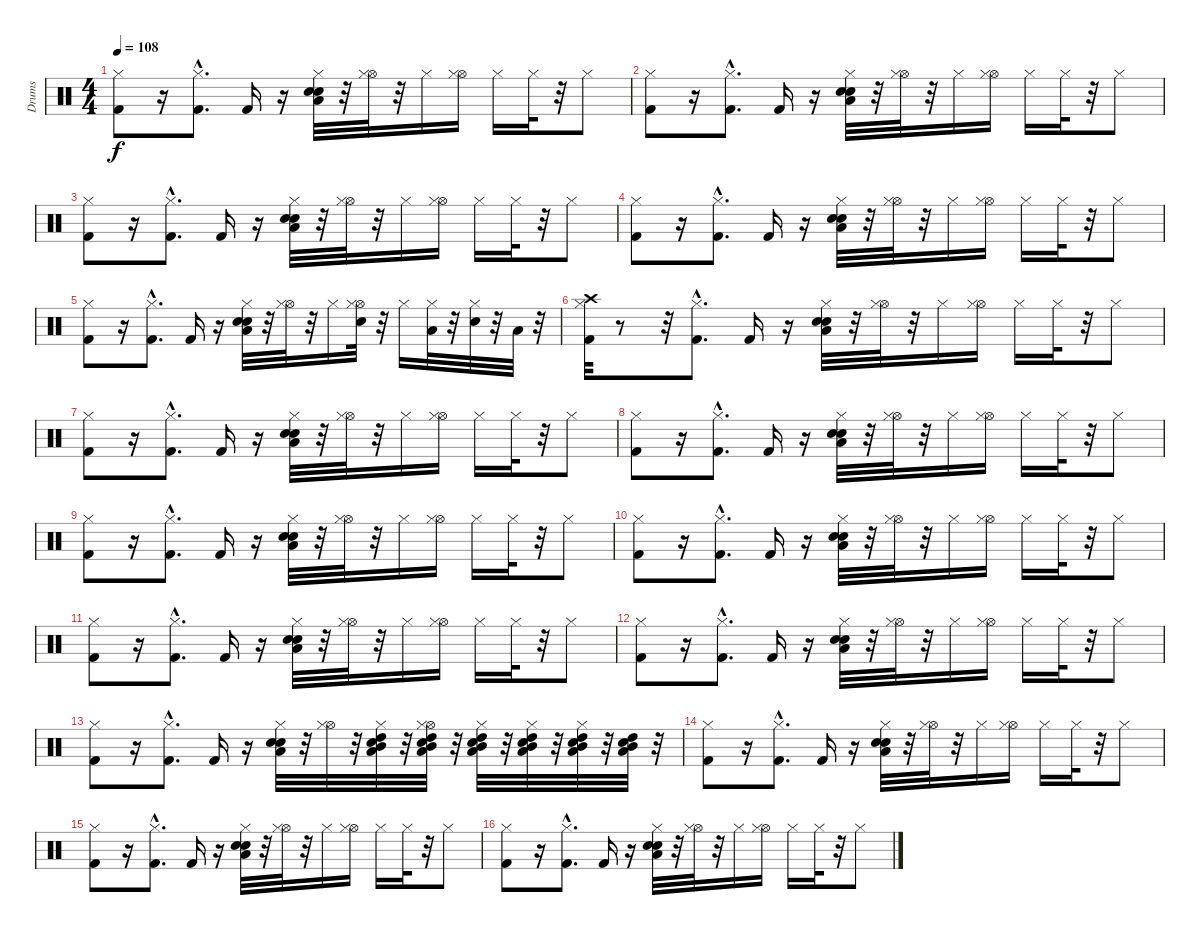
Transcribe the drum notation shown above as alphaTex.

\track ("Drums" "Drums") {instrument percussion}
\staff {score}
\articulation defaults
\ts (4 4)
\tempo 108
\clef neutral
\ks c
("Hi-Hat (closed)" "Kick (hit) 2").8{dy f} r.16 ("Kick (hit) 2"{hac} "Hi-Hat (closed)"{hac}).8{d} "Kick (hit) 2".16 r.16 ("Low Floor Tom (hit)" "Electric Snare (hit)" "Snare (hit) 2" "Hi-Hat (closed)").32 r.32 ("Hi-Hat (open)" "Hi-Hat (closed)").32 r.32 "Hi-Hat (closed)".16 ("Hi-Hat (open)" "Hi-Hat (closed)").16 "Hi-Hat (closed)".16 "Hi-Hat (closed)".32 r.32 "Hi-Hat (closed)".8 |
("Hi-Hat (closed)" "Kick (hit) 2").8 r.16 ("Kick (hit) 2"{hac} "Hi-Hat (closed)"{hac}).8{d} "Kick (hit) 2".16 r.16 ("Low Floor Tom (hit)" "Electric Snare (hit)" "Snare (hit) 2" "Hi-Hat (closed)").32 r.32 ("Hi-Hat (open)" "Hi-Hat (closed)").32 r.32 "Hi-Hat (closed)".16 ("Hi-Hat (open)" "Hi-Hat (closed)").16 "Hi-Hat (closed)".16 "Hi-Hat (closed)".32 r.32 "Hi-Hat (closed)".8 |
("Hi-Hat (closed)" "Kick (hit) 2").8 r.16 ("Kick (hit) 2"{hac} "Hi-Hat (closed)"{hac}).8{d} "Kick (hit) 2".16 r.16 ("Low Floor Tom (hit)" "Electric Snare (hit)" "Snare (hit) 2" "Hi-Hat (closed)").32 r.32 ("Hi-Hat (open)" "Hi-Hat (closed)").32 r.32 "Hi-Hat (closed)".16 ("Hi-Hat (open)" "Hi-Hat (closed)").16 "Hi-Hat (closed)".16 "Hi-Hat (closed)".32 r.32 "Hi-Hat (closed)".8 |
("Hi-Hat (closed)" "Kick (hit) 2").8 r.16 ("Kick (hit) 2"{hac} "Hi-Hat (closed)"{hac}).8{d} "Kick (hit) 2".16 r.16 ("Low Floor Tom (hit)" "Electric Snare (hit)" "Snare (hit) 2" "Hi-Hat (closed)").32 r.32 ("Hi-Hat (open)" "Hi-Hat (closed)").32 r.32 "Hi-Hat (closed)".16 ("Hi-Hat (open)" "Hi-Hat (closed)").16 "Hi-Hat (closed)".16 "Hi-Hat (closed)".32 r.32 "Hi-Hat (closed)".8 |
("Hi-Hat (closed)" "Kick (hit) 2").8 r.16 ("Kick (hit) 2"{hac} "Hi-Hat (closed)"{hac}).8{d} "Kick (hit) 2".16 r.16 ("Low Floor Tom (hit)" "Electric Snare (hit)" "Snare (hit) 2" "Hi-Hat (closed)").32 r.32 ("Hi-Hat (open)" "Hi-Hat (closed)").32 r.32 "Hi-Hat (closed)".16 ("Hi-Hat (open)" "Hi-Hat (closed)" "Electric Snare (hit)").32 r.32 "Hi-Hat (closed)".16 ("Low Floor Tom (hit)" "Hi-Hat (closed)").32 r.32 ("Hi-Hat (closed)" "Electric Snare (hit)").32 r.32 "Low Floor Tom (hit)".32 r.32 |
("Hi-Hat (closed)" "Kick (hit) 2" "Crash high (hit)").32 r.8 r.32 ("Kick (hit) 2"{hac} "Hi-Hat (closed)"{hac}).8{d} "Kick (hit) 2".16 r.16 ("Low Floor Tom (hit)" "Electric Snare (hit)" "Snare (hit) 2" "Hi-Hat (closed)").32 r.32 ("Hi-Hat (open)" "Hi-Hat (closed)").32 r.32 "Hi-Hat (closed)".16 ("Hi-Hat (open)" "Hi-Hat (closed)").16 "Hi-Hat (closed)".16 "Hi-Hat (closed)".32 r.32 "Hi-Hat (closed)".8 |
("Hi-Hat (closed)" "Kick (hit) 2").8 r.16 ("Kick (hit) 2"{hac} "Hi-Hat (closed)"{hac}).8{d} "Kick (hit) 2".16 r.16 ("Low Floor Tom (hit)" "Electric Snare (hit)" "Snare (hit) 2" "Hi-Hat (closed)").32 r.32 ("Hi-Hat (open)" "Hi-Hat (closed)").32 r.32 "Hi-Hat (closed)".16 ("Hi-Hat (open)" "Hi-Hat (closed)").16 "Hi-Hat (closed)".16 "Hi-Hat (closed)".32 r.32 "Hi-Hat (closed)".8 |
("Hi-Hat (closed)" "Kick (hit) 2").8 r.16 ("Kick (hit) 2"{hac} "Hi-Hat (closed)"{hac}).8{d} "Kick (hit) 2".16 r.16 ("Low Floor Tom (hit)" "Electric Snare (hit)" "Snare (hit) 2" "Hi-Hat (closed)").32 r.32 ("Hi-Hat (open)" "Hi-Hat (closed)").32 r.32 "Hi-Hat (closed)".16 ("Hi-Hat (open)" "Hi-Hat (closed)").16 "Hi-Hat (closed)".16 "Hi-Hat (closed)".32 r.32 "Hi-Hat (closed)".8 |
("Hi-Hat (closed)" "Kick (hit) 2").8 r.16 ("Kick (hit) 2"{hac} "Hi-Hat (closed)"{hac}).8{d} "Kick (hit) 2".16 r.16 ("Low Floor Tom (hit)" "Electric Snare (hit)" "Snare (hit) 2" "Hi-Hat (closed)").32 r.32 ("Hi-Hat (open)" "Hi-Hat (closed)").32 r.32 "Hi-Hat (closed)".16 ("Hi-Hat (open)" "Hi-Hat (closed)").16 "Hi-Hat (closed)".16 "Hi-Hat (closed)".32 r.32 "Hi-Hat (closed)".8 |
("Hi-Hat (closed)" "Kick (hit) 2").8 r.16 ("Kick (hit) 2"{hac} "Hi-Hat (closed)"{hac}).8{d} "Kick (hit) 2".16 r.16 ("Low Floor Tom (hit)" "Electric Snare (hit)" "Snare (hit) 2" "Hi-Hat (closed)").32 r.32 ("Hi-Hat (open)" "Hi-Hat (closed)").32 r.32 "Hi-Hat (closed)".16 ("Hi-Hat (open)" "Hi-Hat (closed)").16 "Hi-Hat (closed)".16 "Hi-Hat (closed)".32 r.32 "Hi-Hat (closed)".8 |
("Hi-Hat (closed)" "Kick (hit) 2").8 r.16 ("Kick (hit) 2"{hac} "Hi-Hat (closed)"{hac}).8{d} "Kick (hit) 2".16 r.16 ("Low Floor Tom (hit)" "Electric Snare (hit)" "Snare (hit) 2" "Hi-Hat (closed)").32 r.32 ("Hi-Hat (open)" "Hi-Hat (closed)").32 r.32 "Hi-Hat (closed)".16 ("Hi-Hat (open)" "Hi-Hat (closed)").16 "Hi-Hat (closed)".16 "Hi-Hat (closed)".32 r.32 "Hi-Hat (closed)".8 |
("Hi-Hat (closed)" "Kick (hit) 2").8 r.16 ("Kick (hit) 2"{hac} "Hi-Hat (closed)"{hac}).8{d} "Kick (hit) 2".16 r.16 ("Low Floor Tom (hit)" "Electric Snare (hit)" "Snare (hit) 2" "Hi-Hat (closed)").32 r.32 ("Hi-Hat (open)" "Hi-Hat (closed)").32 r.32 "Hi-Hat (closed)".16 ("Hi-Hat (open)" "Hi-Hat (closed)").16 "Hi-Hat (closed)".16 "Hi-Hat (closed)".32 r.32 "Hi-Hat (closed)".8 |
("Hi-Hat (closed)" "Kick (hit) 2").8 r.16 ("Kick (hit) 2"{hac} "Hi-Hat (closed)"{hac}).8{d} "Kick (hit) 2".16 r.16 ("Low Floor Tom (hit)" "Electric Snare (hit)" "Snare (hit) 2" "Hi-Hat (closed)").32 r.32 ("Hi-Hat (open)" "Hi-Hat (closed)").32 r.32 ("Hi-Hat (closed)" "Electric Snare (hit)" "Mid Tom (hit)" "High Tom (hit)" "Low Tom (hit)").32 r.32 ("Hi-Hat (open)" "Hi-Hat (closed)" "Electric Snare (hit)" "Mid Tom (hit)" "High Tom (hit)" "Low Tom (hit)").32 r.32 ("Hi-Hat (closed)" "Electric Snare (hit)" "High Tom (hit)" "Mid Tom (hit)" "Low Tom (hit)").32 r.32 ("Electric Snare (hit)" "High Tom (hit)" "Mid Tom (hit)" "Low Tom (hit)" "Hi-Hat (closed)").32 r.32 ("Hi-Hat (closed)" "Electric Snare (hit)" "High Tom (hit)" "Mid Tom (hit)" "Low Tom (hit)").32 r.32 ("Electric Snare (hit)" "High Tom (hit)" "Mid Tom (hit)" "Low Tom (hit)").32 r.32 |
("Hi-Hat (closed)" "Kick (hit) 2").8 r.16 ("Kick (hit) 2"{hac} "Hi-Hat (closed)"{hac}).8{d} "Kick (hit) 2".16 r.16 ("Low Floor Tom (hit)" "Electric Snare (hit)" "Snare (hit) 2" "Hi-Hat (closed)").32 r.32 ("Hi-Hat (open)" "Hi-Hat (closed)").32 r.32 "Hi-Hat (closed)".16 ("Hi-Hat (open)" "Hi-Hat (closed)").16 "Hi-Hat (closed)".16 "Hi-Hat (closed)".32 r.32 "Hi-Hat (closed)".8 |
("Hi-Hat (closed)" "Kick (hit) 2").8 r.16 ("Kick (hit) 2"{hac} "Hi-Hat (closed)"{hac}).8{d} "Kick (hit) 2".16 r.16 ("Low Floor Tom (hit)" "Electric Snare (hit)" "Snare (hit) 2" "Hi-Hat (closed)").32 r.32 ("Hi-Hat (open)" "Hi-Hat (closed)").32 r.32 "Hi-Hat (closed)".16 ("Hi-Hat (open)" "Hi-Hat (closed)").16 "Hi-Hat (closed)".16 "Hi-Hat (closed)".32 r.32 "Hi-Hat (closed)".8 |
("Hi-Hat (closed)" "Kick (hit) 2").8 r.16 ("Kick (hit) 2"{hac} "Hi-Hat (closed)"{hac}).8{d} "Kick (hit) 2".16 r.16 ("Low Floor Tom (hit)" "Electric Snare (hit)" "Snare (hit) 2" "Hi-Hat (closed)").32 r.32 ("Hi-Hat (open)" "Hi-Hat (closed)").32 r.32 "Hi-Hat (closed)".16 ("Hi-Hat (open)" "Hi-Hat (closed)").16 "Hi-Hat (closed)".16 "Hi-Hat (closed)".32 r.32 "Hi-Hat (closed)".8
